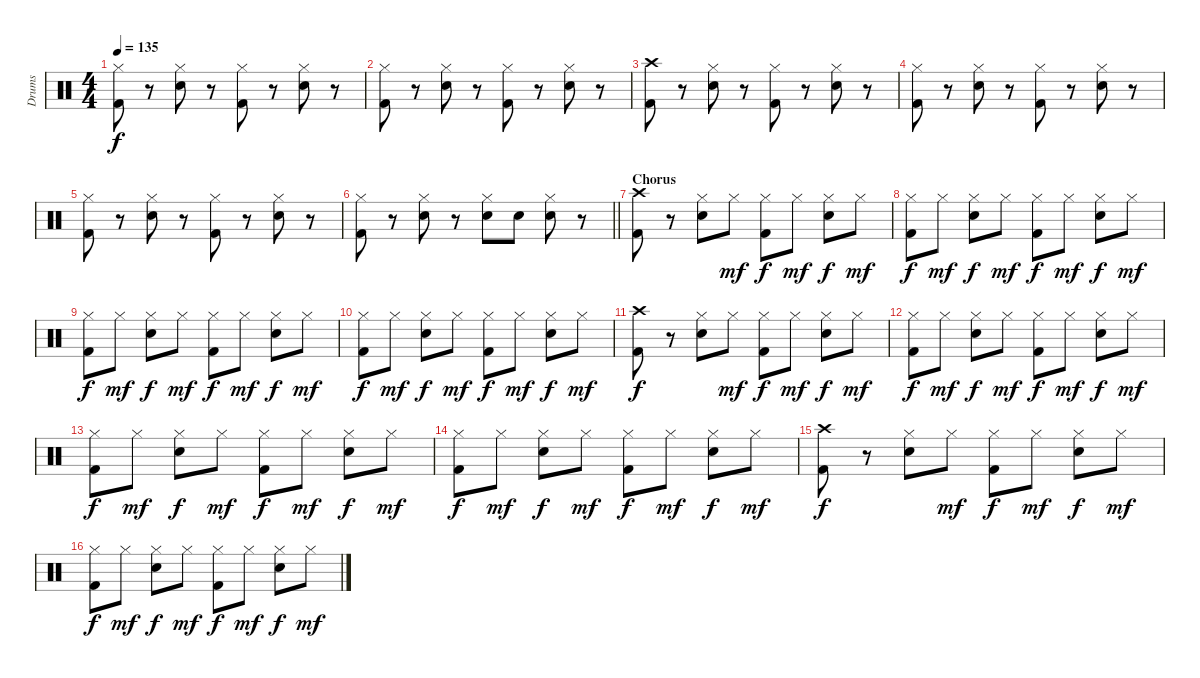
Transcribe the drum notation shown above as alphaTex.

\track ("Drums" "Drums") {instrument percussion}
\staff {score}
\articulation defaults
\ts (4 4)
\tempo 135
\clef neutral
\ks c
("Hi-Hat (closed)" "Kick (hit) 2").8{dy f} r.8 ("Hi-Hat (closed)" "Snare (hit) 2").8 r.8 ("Hi-Hat (closed)" "Kick (hit) 2").8 r.8 ("Hi-Hat (closed)" "Snare (hit) 2").8 r.8 |
("Hi-Hat (closed)" "Kick (hit) 2").8 r.8 ("Hi-Hat (closed)" "Snare (hit) 2").8 r.8 ("Hi-Hat (closed)" "Kick (hit) 2").8 r.8 ("Hi-Hat (closed)" "Snare (hit) 2").8 r.8 |
("Crash high (hit)" "Kick (hit) 2").8 r.8 ("Hi-Hat (closed)" "Snare (hit) 2").8 r.8 ("Hi-Hat (closed)" "Kick (hit) 2").8 r.8 ("Hi-Hat (closed)" "Snare (hit) 2").8 r.8 |
("Hi-Hat (closed)" "Kick (hit) 2").8 r.8 ("Hi-Hat (closed)" "Snare (hit) 2").8 r.8 ("Hi-Hat (closed)" "Kick (hit) 2").8 r.8 ("Hi-Hat (closed)" "Snare (hit) 2").8 r.8 |
("Hi-Hat (closed)" "Kick (hit) 2").8 r.8 ("Hi-Hat (closed)" "Snare (hit) 2").8 r.8 ("Hi-Hat (closed)" "Kick (hit) 2").8 r.8 ("Hi-Hat (closed)" "Snare (hit) 2").8 r.8 |
\barLineRight lightlight
("Hi-Hat (closed)" "Kick (hit) 2").8 r.8 ("Hi-Hat (closed)" "Snare (hit) 2").8 r.8 ("Hi-Hat (closed)" "Snare (hit) 2").8 "Snare (hit) 2".8 ("Hi-Hat (closed)" "Snare (hit) 2").8 r.8 |
\section ("" "Chorus")
("Crash high (hit)" "Kick (hit) 2").8 r.8 ("Hi-Hat (closed)" "Snare (hit) 2").8 "Hi-Hat (closed)".8{dy mf} ("Hi-Hat (closed)" "Kick (hit) 2").8{dy f} "Hi-Hat (closed)".8{dy mf} ("Hi-Hat (closed)" "Snare (hit) 2").8{dy f} "Hi-Hat (closed)".8{dy mf} |
("Hi-Hat (closed)" "Kick (hit) 2").8{dy f} "Hi-Hat (closed)".8{dy mf} ("Hi-Hat (closed)" "Snare (hit) 2").8{dy f} "Hi-Hat (closed)".8{dy mf} ("Hi-Hat (closed)" "Kick (hit) 2").8{dy f} "Hi-Hat (closed)".8{dy mf} ("Hi-Hat (closed)" "Snare (hit) 2").8{dy f} "Hi-Hat (closed)".8{dy mf} |
("Hi-Hat (closed)" "Kick (hit) 2").8{dy f} "Hi-Hat (closed)".8{dy mf} ("Hi-Hat (closed)" "Snare (hit) 2").8{dy f} "Hi-Hat (closed)".8{dy mf} ("Hi-Hat (closed)" "Kick (hit) 2").8{dy f} "Hi-Hat (closed)".8{dy mf} ("Hi-Hat (closed)" "Snare (hit) 2").8{dy f} "Hi-Hat (closed)".8{dy mf} |
("Hi-Hat (closed)" "Kick (hit) 2").8{dy f} "Hi-Hat (closed)".8{dy mf} ("Hi-Hat (closed)" "Snare (hit) 2").8{dy f} "Hi-Hat (closed)".8{dy mf} ("Hi-Hat (closed)" "Kick (hit) 2").8{dy f} "Hi-Hat (closed)".8{dy mf} ("Hi-Hat (closed)" "Snare (hit) 2").8{dy f} "Hi-Hat (closed)".8{dy mf} |
("Crash high (hit)" "Kick (hit) 2").8{dy f} r.8 ("Hi-Hat (closed)" "Snare (hit) 2").8 "Hi-Hat (closed)".8{dy mf} ("Hi-Hat (closed)" "Kick (hit) 2").8{dy f} "Hi-Hat (closed)".8{dy mf} ("Hi-Hat (closed)" "Snare (hit) 2").8{dy f} "Hi-Hat (closed)".8{dy mf} |
("Hi-Hat (closed)" "Kick (hit) 2").8{dy f} "Hi-Hat (closed)".8{dy mf} ("Hi-Hat (closed)" "Snare (hit) 2").8{dy f} "Hi-Hat (closed)".8{dy mf} ("Hi-Hat (closed)" "Kick (hit) 2").8{dy f} "Hi-Hat (closed)".8{dy mf} ("Hi-Hat (closed)" "Snare (hit) 2").8{dy f} "Hi-Hat (closed)".8{dy mf} |
("Hi-Hat (closed)" "Kick (hit) 2").8{dy f} "Hi-Hat (closed)".8{dy mf} ("Hi-Hat (closed)" "Snare (hit) 2").8{dy f} "Hi-Hat (closed)".8{dy mf} ("Hi-Hat (closed)" "Kick (hit) 2").8{dy f} "Hi-Hat (closed)".8{dy mf} ("Hi-Hat (closed)" "Snare (hit) 2").8{dy f} "Hi-Hat (closed)".8{dy mf} |
("Hi-Hat (closed)" "Kick (hit) 2").8{dy f} "Hi-Hat (closed)".8{dy mf} ("Hi-Hat (closed)" "Snare (hit) 2").8{dy f} "Hi-Hat (closed)".8{dy mf} ("Hi-Hat (closed)" "Kick (hit) 2").8{dy f} "Hi-Hat (closed)".8{dy mf} ("Hi-Hat (closed)" "Snare (hit) 2").8{dy f} "Hi-Hat (closed)".8{dy mf} |
("Crash high (hit)" "Kick (hit) 2").8{dy f} r.8 ("Hi-Hat (closed)" "Snare (hit) 2").8 "Hi-Hat (closed)".8{dy mf} ("Hi-Hat (closed)" "Kick (hit) 2").8{dy f} "Hi-Hat (closed)".8{dy mf} ("Hi-Hat (closed)" "Snare (hit) 2").8{dy f} "Hi-Hat (closed)".8{dy mf} |
("Hi-Hat (closed)" "Kick (hit) 2").8{dy f} "Hi-Hat (closed)".8{dy mf} ("Hi-Hat (closed)" "Snare (hit) 2").8{dy f} "Hi-Hat (closed)".8{dy mf} ("Hi-Hat (closed)" "Kick (hit) 2").8{dy f} "Hi-Hat (closed)".8{dy mf} ("Hi-Hat (closed)" "Snare (hit) 2").8{dy f} "Hi-Hat (closed)".8{dy mf}
